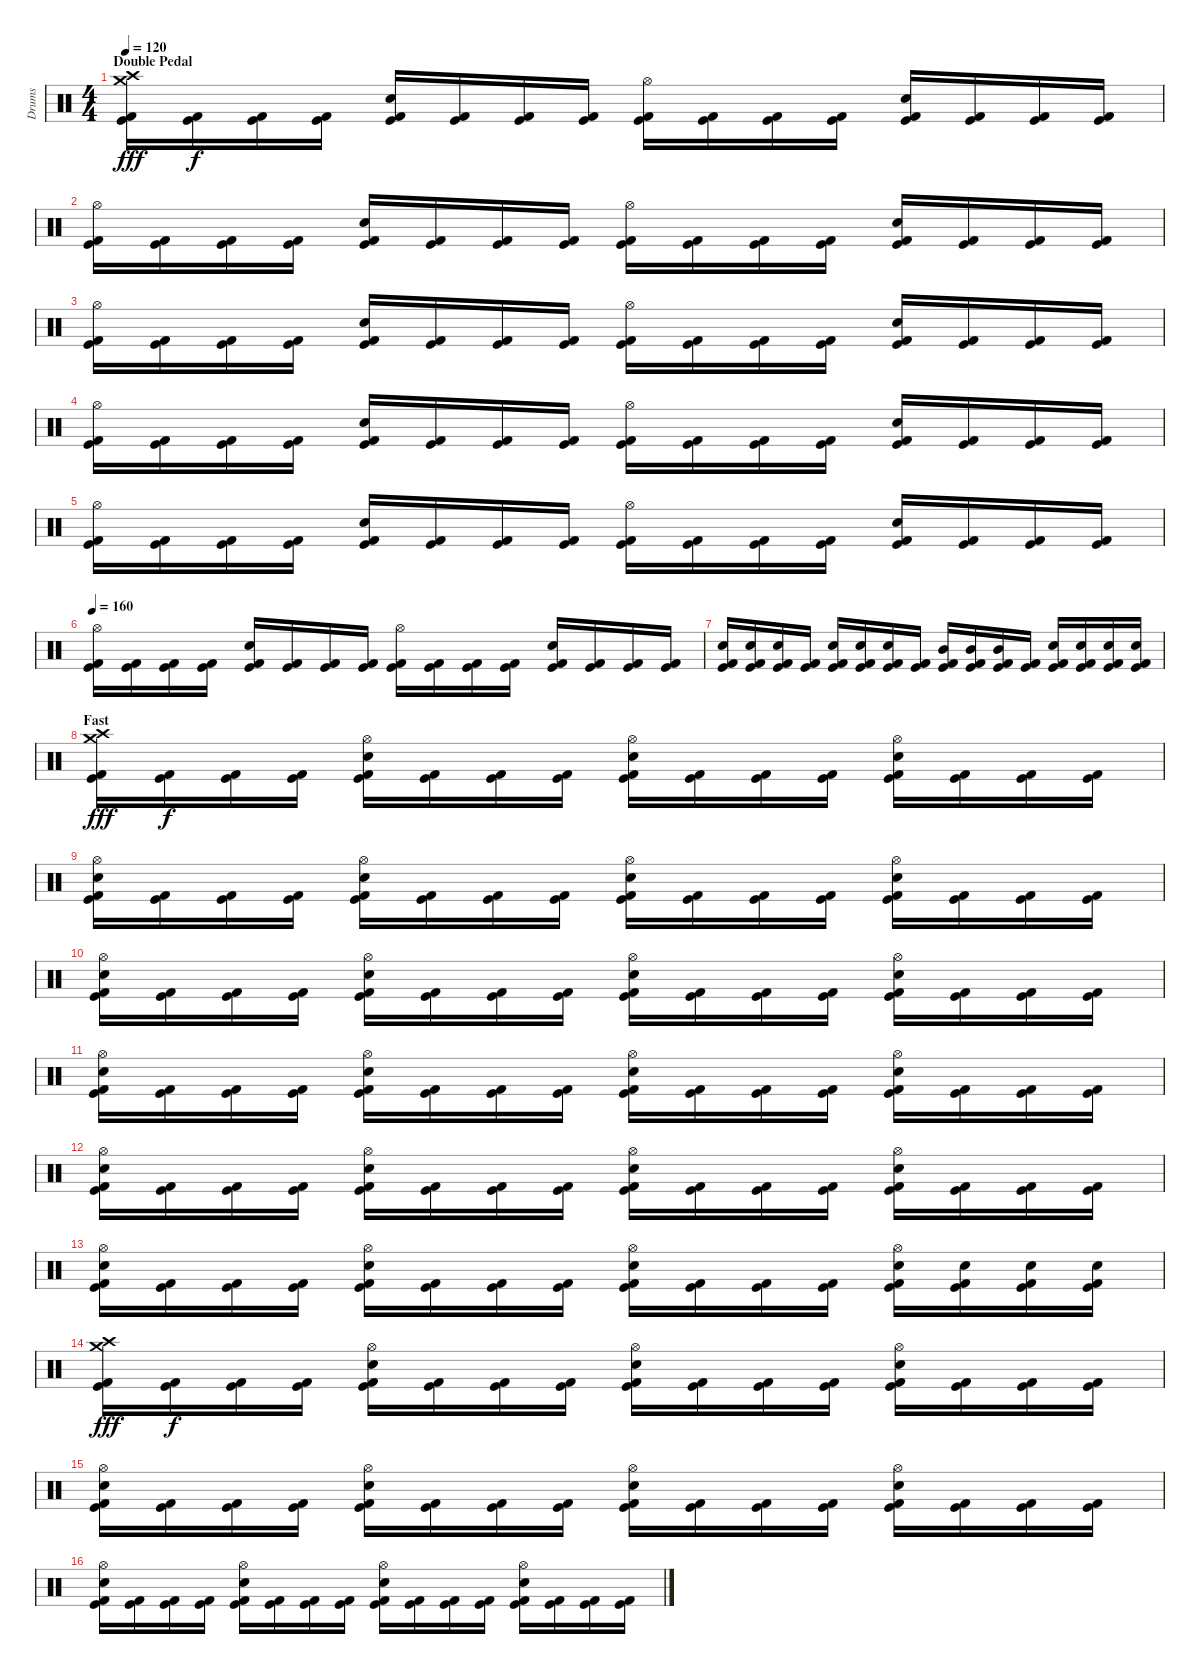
\track ("Drums" "Drums") {instrument percussion}
\staff {score}
\articulation defaults
\ts (4 4)
\section ("" "Double Pedal")
\tempo 120
\clef neutral
\ks c
("Crash high (hit)" "Crash medium (hit)" "Kick (hit)" "Kick (hit) 2").16{dy fff} ("Kick (hit)" "Kick (hit) 2").16{dy f} ("Kick (hit)" "Kick (hit) 2").16 ("Kick (hit)" "Kick (hit) 2").16 ("Snare (hit) 2" "Kick (hit)" "Kick (hit) 2").16 ("Kick (hit)" "Kick (hit) 2").16 ("Kick (hit)" "Kick (hit) 2").16 ("Kick (hit)" "Kick (hit) 2").16 ("Hi-Hat (open)" "Kick (hit)" "Kick (hit) 2").16 ("Kick (hit)" "Kick (hit) 2").16 ("Kick (hit)" "Kick (hit) 2").16 ("Kick (hit)" "Kick (hit) 2").16 ("Snare (hit) 2" "Kick (hit)" "Kick (hit) 2").16 ("Kick (hit)" "Kick (hit) 2").16 ("Kick (hit)" "Kick (hit) 2").16 ("Kick (hit)" "Kick (hit) 2").16 |
("Hi-Hat (open)" "Kick (hit)" "Kick (hit) 2").16 ("Kick (hit)" "Kick (hit) 2").16 ("Kick (hit)" "Kick (hit) 2").16 ("Kick (hit)" "Kick (hit) 2").16 ("Snare (hit) 2" "Kick (hit)" "Kick (hit) 2").16 ("Kick (hit)" "Kick (hit) 2").16 ("Kick (hit)" "Kick (hit) 2").16 ("Kick (hit)" "Kick (hit) 2").16 ("Hi-Hat (open)" "Kick (hit)" "Kick (hit) 2").16 ("Kick (hit)" "Kick (hit) 2").16 ("Kick (hit)" "Kick (hit) 2").16 ("Kick (hit)" "Kick (hit) 2").16 ("Snare (hit) 2" "Kick (hit)" "Kick (hit) 2").16 ("Kick (hit)" "Kick (hit) 2").16 ("Kick (hit)" "Kick (hit) 2").16 ("Kick (hit)" "Kick (hit) 2").16 |
("Hi-Hat (open)" "Kick (hit)" "Kick (hit) 2").16 ("Kick (hit)" "Kick (hit) 2").16 ("Kick (hit)" "Kick (hit) 2").16 ("Kick (hit)" "Kick (hit) 2").16 ("Snare (hit) 2" "Kick (hit)" "Kick (hit) 2").16 ("Kick (hit)" "Kick (hit) 2").16 ("Kick (hit)" "Kick (hit) 2").16 ("Kick (hit)" "Kick (hit) 2").16 ("Hi-Hat (open)" "Kick (hit)" "Kick (hit) 2").16 ("Kick (hit)" "Kick (hit) 2").16 ("Kick (hit)" "Kick (hit) 2").16 ("Kick (hit)" "Kick (hit) 2").16 ("Snare (hit) 2" "Kick (hit)" "Kick (hit) 2").16 ("Kick (hit)" "Kick (hit) 2").16 ("Kick (hit)" "Kick (hit) 2").16 ("Kick (hit)" "Kick (hit) 2").16 |
("Hi-Hat (open)" "Kick (hit)" "Kick (hit) 2").16 ("Kick (hit)" "Kick (hit) 2").16 ("Kick (hit)" "Kick (hit) 2").16 ("Kick (hit)" "Kick (hit) 2").16 ("Snare (hit) 2" "Kick (hit)" "Kick (hit) 2").16 ("Kick (hit)" "Kick (hit) 2").16 ("Kick (hit)" "Kick (hit) 2").16 ("Kick (hit)" "Kick (hit) 2").16 ("Hi-Hat (open)" "Kick (hit)" "Kick (hit) 2").16 ("Kick (hit)" "Kick (hit) 2").16 ("Kick (hit)" "Kick (hit) 2").16 ("Kick (hit)" "Kick (hit) 2").16 ("Snare (hit) 2" "Kick (hit)" "Kick (hit) 2").16 ("Kick (hit)" "Kick (hit) 2").16 ("Kick (hit)" "Kick (hit) 2").16 ("Kick (hit)" "Kick (hit) 2").16 |
("Hi-Hat (open)" "Kick (hit)" "Kick (hit) 2").16 ("Kick (hit)" "Kick (hit) 2").16 ("Kick (hit)" "Kick (hit) 2").16 ("Kick (hit)" "Kick (hit) 2").16 ("Snare (hit) 2" "Kick (hit)" "Kick (hit) 2").16 ("Kick (hit)" "Kick (hit) 2").16 ("Kick (hit)" "Kick (hit) 2").16 ("Kick (hit)" "Kick (hit) 2").16 ("Hi-Hat (open)" "Kick (hit)" "Kick (hit) 2").16 ("Kick (hit)" "Kick (hit) 2").16 ("Kick (hit)" "Kick (hit) 2").16 ("Kick (hit)" "Kick (hit) 2").16 ("Snare (hit) 2" "Kick (hit)" "Kick (hit) 2").16 ("Kick (hit)" "Kick (hit) 2").16 ("Kick (hit)" "Kick (hit) 2").16 ("Kick (hit)" "Kick (hit) 2").16 |
\tempo 160
("Hi-Hat (open)" "Kick (hit)" "Kick (hit) 2").16 ("Kick (hit)" "Kick (hit) 2").16 ("Kick (hit)" "Kick (hit) 2").16 ("Kick (hit)" "Kick (hit) 2").16 ("Snare (hit) 2" "Kick (hit)" "Kick (hit) 2").16 ("Kick (hit)" "Kick (hit) 2").16 ("Kick (hit)" "Kick (hit) 2").16 ("Kick (hit)" "Kick (hit) 2").16 ("Hi-Hat (open)" "Kick (hit)" "Kick (hit) 2").16 ("Kick (hit)" "Kick (hit) 2").16 ("Kick (hit)" "Kick (hit) 2").16 ("Kick (hit)" "Kick (hit) 2").16 ("Snare (hit) 2" "Kick (hit)" "Kick (hit) 2").16 ("Kick (hit)" "Kick (hit) 2").16 ("Kick (hit)" "Kick (hit) 2").16 ("Kick (hit)" "Kick (hit) 2").16 |
("Snare (hit) 2" "Kick (hit)" "Kick (hit) 2").16 ("Snare (hit) 2" "Kick (hit)" "Kick (hit) 2").16 ("Snare (hit) 2" "Kick (hit)" "Kick (hit) 2").16 ("Kick (hit)" "Kick (hit) 2").16 ("Snare (hit) 2" "Kick (hit)" "Kick (hit) 2").16 ("Snare (hit) 2" "Kick (hit)" "Kick (hit) 2").16 ("Snare (hit) 2" "Kick (hit)" "Kick (hit) 2").16 ("Kick (hit)" "Kick (hit) 2").16 ("Mid Tom (hit)" "Kick (hit)" "Kick (hit) 2").16 ("Mid Tom (hit)" "Kick (hit)" "Kick (hit) 2").16 ("Mid Tom (hit)" "Kick (hit)" "Kick (hit) 2").16 ("Kick (hit)" "Kick (hit) 2").16 ("Snare (hit) 2" "Kick (hit)" "Kick (hit) 2").16 ("Snare (hit) 2" "Kick (hit)" "Kick (hit) 2").16 ("Snare (hit) 2" "Kick (hit)" "Kick (hit) 2").16 ("Snare (hit) 2" "Kick (hit)" "Kick (hit) 2").16 |
\section ("" "Fast")
("Crash high (hit)" "Crash medium (hit)" "Kick (hit)" "Kick (hit) 2").16{dy fff} ("Kick (hit)" "Kick (hit) 2").16{dy f} ("Kick (hit)" "Kick (hit) 2").16 ("Kick (hit)" "Kick (hit) 2").16 ("Hi-Hat (open)" "Snare (hit) 2" "Kick (hit)" "Kick (hit) 2").16 ("Kick (hit)" "Kick (hit) 2").16 ("Kick (hit)" "Kick (hit) 2").16 ("Kick (hit)" "Kick (hit) 2").16 ("Hi-Hat (open)" "Snare (hit) 2" "Kick (hit)" "Kick (hit) 2").16 ("Kick (hit)" "Kick (hit) 2").16 ("Kick (hit)" "Kick (hit) 2").16 ("Kick (hit)" "Kick (hit) 2").16 ("Hi-Hat (open)" "Snare (hit) 2" "Kick (hit)" "Kick (hit) 2").16 ("Kick (hit)" "Kick (hit) 2").16 ("Kick (hit)" "Kick (hit) 2").16 ("Kick (hit)" "Kick (hit) 2").16 |
("Hi-Hat (open)" "Snare (hit) 2" "Kick (hit)" "Kick (hit) 2").16 ("Kick (hit)" "Kick (hit) 2").16 ("Kick (hit)" "Kick (hit) 2").16 ("Kick (hit)" "Kick (hit) 2").16 ("Hi-Hat (open)" "Snare (hit) 2" "Kick (hit)" "Kick (hit) 2").16 ("Kick (hit)" "Kick (hit) 2").16 ("Kick (hit)" "Kick (hit) 2").16 ("Kick (hit)" "Kick (hit) 2").16 ("Hi-Hat (open)" "Snare (hit) 2" "Kick (hit)" "Kick (hit) 2").16 ("Kick (hit)" "Kick (hit) 2").16 ("Kick (hit)" "Kick (hit) 2").16 ("Kick (hit)" "Kick (hit) 2").16 ("Hi-Hat (open)" "Snare (hit) 2" "Kick (hit)" "Kick (hit) 2").16 ("Kick (hit)" "Kick (hit) 2").16 ("Kick (hit)" "Kick (hit) 2").16 ("Kick (hit)" "Kick (hit) 2").16 |
("Hi-Hat (open)" "Snare (hit) 2" "Kick (hit)" "Kick (hit) 2").16 ("Kick (hit)" "Kick (hit) 2").16 ("Kick (hit)" "Kick (hit) 2").16 ("Kick (hit)" "Kick (hit) 2").16 ("Hi-Hat (open)" "Snare (hit) 2" "Kick (hit)" "Kick (hit) 2").16 ("Kick (hit)" "Kick (hit) 2").16 ("Kick (hit)" "Kick (hit) 2").16 ("Kick (hit)" "Kick (hit) 2").16 ("Hi-Hat (open)" "Snare (hit) 2" "Kick (hit)" "Kick (hit) 2").16 ("Kick (hit)" "Kick (hit) 2").16 ("Kick (hit)" "Kick (hit) 2").16 ("Kick (hit)" "Kick (hit) 2").16 ("Hi-Hat (open)" "Snare (hit) 2" "Kick (hit)" "Kick (hit) 2").16 ("Kick (hit)" "Kick (hit) 2").16 ("Kick (hit)" "Kick (hit) 2").16 ("Kick (hit)" "Kick (hit) 2").16 |
("Hi-Hat (open)" "Snare (hit) 2" "Kick (hit)" "Kick (hit) 2").16 ("Kick (hit)" "Kick (hit) 2").16 ("Kick (hit)" "Kick (hit) 2").16 ("Kick (hit)" "Kick (hit) 2").16 ("Hi-Hat (open)" "Snare (hit) 2" "Kick (hit)" "Kick (hit) 2").16 ("Kick (hit)" "Kick (hit) 2").16 ("Kick (hit)" "Kick (hit) 2").16 ("Kick (hit)" "Kick (hit) 2").16 ("Hi-Hat (open)" "Snare (hit) 2" "Kick (hit)" "Kick (hit) 2").16 ("Kick (hit)" "Kick (hit) 2").16 ("Kick (hit)" "Kick (hit) 2").16 ("Kick (hit)" "Kick (hit) 2").16 ("Hi-Hat (open)" "Snare (hit) 2" "Kick (hit)" "Kick (hit) 2").16 ("Kick (hit)" "Kick (hit) 2").16 ("Kick (hit)" "Kick (hit) 2").16 ("Kick (hit)" "Kick (hit) 2").16 |
("Hi-Hat (open)" "Snare (hit) 2" "Kick (hit)" "Kick (hit) 2").16 ("Kick (hit)" "Kick (hit) 2").16 ("Kick (hit)" "Kick (hit) 2").16 ("Kick (hit)" "Kick (hit) 2").16 ("Hi-Hat (open)" "Snare (hit) 2" "Kick (hit)" "Kick (hit) 2").16 ("Kick (hit)" "Kick (hit) 2").16 ("Kick (hit)" "Kick (hit) 2").16 ("Kick (hit)" "Kick (hit) 2").16 ("Hi-Hat (open)" "Snare (hit) 2" "Kick (hit)" "Kick (hit) 2").16 ("Kick (hit)" "Kick (hit) 2").16 ("Kick (hit)" "Kick (hit) 2").16 ("Kick (hit)" "Kick (hit) 2").16 ("Hi-Hat (open)" "Snare (hit) 2" "Kick (hit)" "Kick (hit) 2").16 ("Kick (hit)" "Kick (hit) 2").16 ("Kick (hit)" "Kick (hit) 2").16 ("Kick (hit)" "Kick (hit) 2").16 |
("Hi-Hat (open)" "Snare (hit) 2" "Kick (hit)" "Kick (hit) 2").16 ("Kick (hit)" "Kick (hit) 2").16 ("Kick (hit)" "Kick (hit) 2").16 ("Kick (hit)" "Kick (hit) 2").16 ("Hi-Hat (open)" "Snare (hit) 2" "Kick (hit)" "Kick (hit) 2").16 ("Kick (hit)" "Kick (hit) 2").16 ("Kick (hit)" "Kick (hit) 2").16 ("Kick (hit)" "Kick (hit) 2").16 ("Hi-Hat (open)" "Snare (hit) 2" "Kick (hit)" "Kick (hit) 2").16 ("Kick (hit)" "Kick (hit) 2").16 ("Kick (hit)" "Kick (hit) 2").16 ("Kick (hit)" "Kick (hit) 2").16 ("Hi-Hat (open)" "Snare (hit) 2" "Kick (hit)" "Kick (hit) 2").16 ("Snare (hit) 2" "Kick (hit)" "Kick (hit) 2").16 ("Snare (hit) 2" "Kick (hit)" "Kick (hit) 2").16 ("Snare (hit) 2" "Kick (hit)" "Kick (hit) 2").16 |
("Crash high (hit)" "Crash medium (hit)" "Kick (hit)" "Kick (hit) 2").16{dy fff} ("Kick (hit)" "Kick (hit) 2").16{dy f} ("Kick (hit)" "Kick (hit) 2").16 ("Kick (hit)" "Kick (hit) 2").16 ("Hi-Hat (open)" "Snare (hit) 2" "Kick (hit)" "Kick (hit) 2").16 ("Kick (hit)" "Kick (hit) 2").16 ("Kick (hit)" "Kick (hit) 2").16 ("Kick (hit)" "Kick (hit) 2").16 ("Hi-Hat (open)" "Snare (hit) 2" "Kick (hit)" "Kick (hit) 2").16 ("Kick (hit)" "Kick (hit) 2").16 ("Kick (hit)" "Kick (hit) 2").16 ("Kick (hit)" "Kick (hit) 2").16 ("Hi-Hat (open)" "Snare (hit) 2" "Kick (hit)" "Kick (hit) 2").16 ("Kick (hit)" "Kick (hit) 2").16 ("Kick (hit)" "Kick (hit) 2").16 ("Kick (hit)" "Kick (hit) 2").16 |
("Hi-Hat (open)" "Snare (hit) 2" "Kick (hit)" "Kick (hit) 2").16 ("Kick (hit)" "Kick (hit) 2").16 ("Kick (hit)" "Kick (hit) 2").16 ("Kick (hit)" "Kick (hit) 2").16 ("Hi-Hat (open)" "Snare (hit) 2" "Kick (hit)" "Kick (hit) 2").16 ("Kick (hit)" "Kick (hit) 2").16 ("Kick (hit)" "Kick (hit) 2").16 ("Kick (hit)" "Kick (hit) 2").16 ("Hi-Hat (open)" "Snare (hit) 2" "Kick (hit)" "Kick (hit) 2").16 ("Kick (hit)" "Kick (hit) 2").16 ("Kick (hit)" "Kick (hit) 2").16 ("Kick (hit)" "Kick (hit) 2").16 ("Hi-Hat (open)" "Snare (hit) 2" "Kick (hit)" "Kick (hit) 2").16 ("Kick (hit)" "Kick (hit) 2").16 ("Kick (hit)" "Kick (hit) 2").16 ("Kick (hit)" "Kick (hit) 2").16 |
("Hi-Hat (open)" "Snare (hit) 2" "Kick (hit)" "Kick (hit) 2").16 ("Kick (hit)" "Kick (hit) 2").16 ("Kick (hit)" "Kick (hit) 2").16 ("Kick (hit)" "Kick (hit) 2").16 ("Hi-Hat (open)" "Snare (hit) 2" "Kick (hit)" "Kick (hit) 2").16 ("Kick (hit)" "Kick (hit) 2").16 ("Kick (hit)" "Kick (hit) 2").16 ("Kick (hit)" "Kick (hit) 2").16 ("Hi-Hat (open)" "Snare (hit) 2" "Kick (hit)" "Kick (hit) 2").16 ("Kick (hit)" "Kick (hit) 2").16 ("Kick (hit)" "Kick (hit) 2").16 ("Kick (hit)" "Kick (hit) 2").16 ("Hi-Hat (open)" "Snare (hit) 2" "Kick (hit)" "Kick (hit) 2").16 ("Kick (hit)" "Kick (hit) 2").16 ("Kick (hit)" "Kick (hit) 2").16 ("Kick (hit)" "Kick (hit) 2").16
